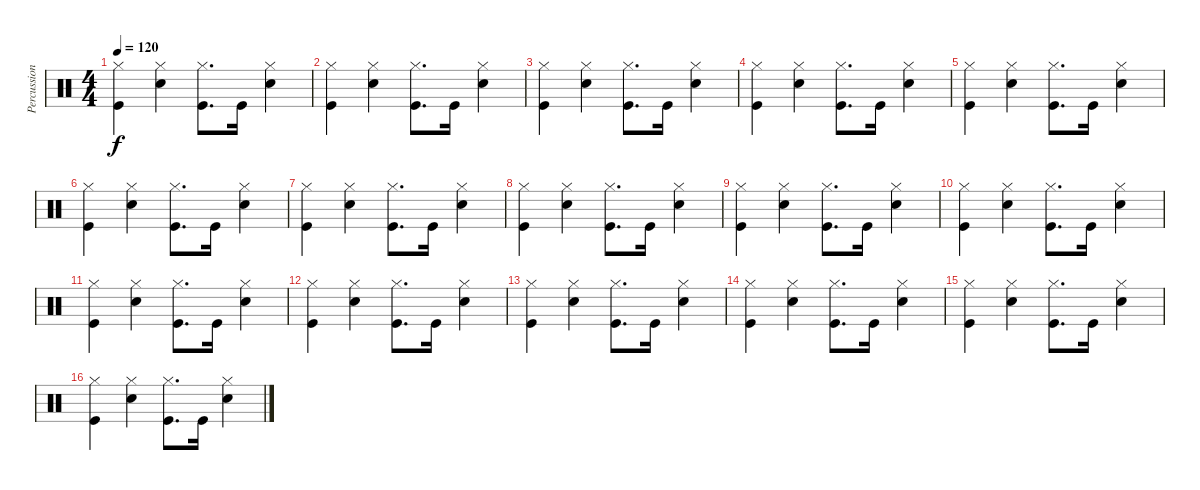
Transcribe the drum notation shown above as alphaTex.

\track ("Percussion" "Percussion") {instrument percussion}
\staff {score}
\articulation defaults
\ts (4 4)
\tempo 120
\clef neutral
\ks c
("Hi-Hat (closed)" "Kick (hit)").4{dy f} ("Hi-Hat (closed)" "Snare (hit) 2").4 ("Hi-Hat (closed)" "Kick (hit)").8{d} "Kick (hit)".16 ("Hi-Hat (closed)" "Snare (hit) 2").4 |
("Hi-Hat (closed)" "Kick (hit)").4 ("Hi-Hat (closed)" "Snare (hit) 2").4 ("Hi-Hat (closed)" "Kick (hit)").8{d} "Kick (hit)".16 ("Hi-Hat (closed)" "Snare (hit) 2").4 |
("Hi-Hat (closed)" "Kick (hit)").4 ("Hi-Hat (closed)" "Snare (hit) 2").4 ("Hi-Hat (closed)" "Kick (hit)").8{d} "Kick (hit)".16 ("Hi-Hat (closed)" "Snare (hit) 2").4 |
("Hi-Hat (closed)" "Kick (hit)").4 ("Hi-Hat (closed)" "Snare (hit) 2").4 ("Hi-Hat (closed)" "Kick (hit)").8{d} "Kick (hit)".16 ("Hi-Hat (closed)" "Snare (hit) 2").4 |
("Hi-Hat (closed)" "Kick (hit)").4 ("Hi-Hat (closed)" "Snare (hit) 2").4 ("Hi-Hat (closed)" "Kick (hit)").8{d} "Kick (hit)".16 ("Hi-Hat (closed)" "Snare (hit) 2").4 |
("Hi-Hat (closed)" "Kick (hit)").4 ("Hi-Hat (closed)" "Snare (hit) 2").4 ("Hi-Hat (closed)" "Kick (hit)").8{d} "Kick (hit)".16 ("Hi-Hat (closed)" "Snare (hit) 2").4 |
("Hi-Hat (closed)" "Kick (hit)").4 ("Hi-Hat (closed)" "Snare (hit) 2").4 ("Hi-Hat (closed)" "Kick (hit)").8{d} "Kick (hit)".16 ("Hi-Hat (closed)" "Snare (hit) 2").4 |
("Hi-Hat (closed)" "Kick (hit)").4 ("Hi-Hat (closed)" "Snare (hit) 2").4 ("Hi-Hat (closed)" "Kick (hit)").8{d} "Kick (hit)".16 ("Hi-Hat (closed)" "Snare (hit) 2").4 |
("Hi-Hat (closed)" "Kick (hit)").4 ("Hi-Hat (closed)" "Snare (hit) 2").4 ("Hi-Hat (closed)" "Kick (hit)").8{d} "Kick (hit)".16 ("Hi-Hat (closed)" "Snare (hit) 2").4 |
("Hi-Hat (closed)" "Kick (hit)").4 ("Hi-Hat (closed)" "Snare (hit) 2").4 ("Hi-Hat (closed)" "Kick (hit)").8{d} "Kick (hit)".16 ("Hi-Hat (closed)" "Snare (hit) 2").4 |
("Hi-Hat (closed)" "Kick (hit)").4 ("Hi-Hat (closed)" "Snare (hit) 2").4 ("Hi-Hat (closed)" "Kick (hit)").8{d} "Kick (hit)".16 ("Hi-Hat (closed)" "Snare (hit) 2").4 |
("Hi-Hat (closed)" "Kick (hit)").4 ("Hi-Hat (closed)" "Snare (hit) 2").4 ("Hi-Hat (closed)" "Kick (hit)").8{d} "Kick (hit)".16 ("Hi-Hat (closed)" "Snare (hit) 2").4 |
("Hi-Hat (closed)" "Kick (hit)").4 ("Hi-Hat (closed)" "Snare (hit) 2").4 ("Hi-Hat (closed)" "Kick (hit)").8{d} "Kick (hit)".16 ("Hi-Hat (closed)" "Snare (hit) 2").4 |
("Hi-Hat (closed)" "Kick (hit)").4 ("Hi-Hat (closed)" "Snare (hit) 2").4 ("Hi-Hat (closed)" "Kick (hit)").8{d} "Kick (hit)".16 ("Hi-Hat (closed)" "Snare (hit) 2").4 |
("Hi-Hat (closed)" "Kick (hit)").4 ("Hi-Hat (closed)" "Snare (hit) 2").4 ("Hi-Hat (closed)" "Kick (hit)").8{d} "Kick (hit)".16 ("Hi-Hat (closed)" "Snare (hit) 2").4 |
("Hi-Hat (closed)" "Kick (hit)").4 ("Hi-Hat (closed)" "Snare (hit) 2").4 ("Hi-Hat (closed)" "Kick (hit)").8{d} "Kick (hit)".16 ("Hi-Hat (closed)" "Snare (hit) 2").4
